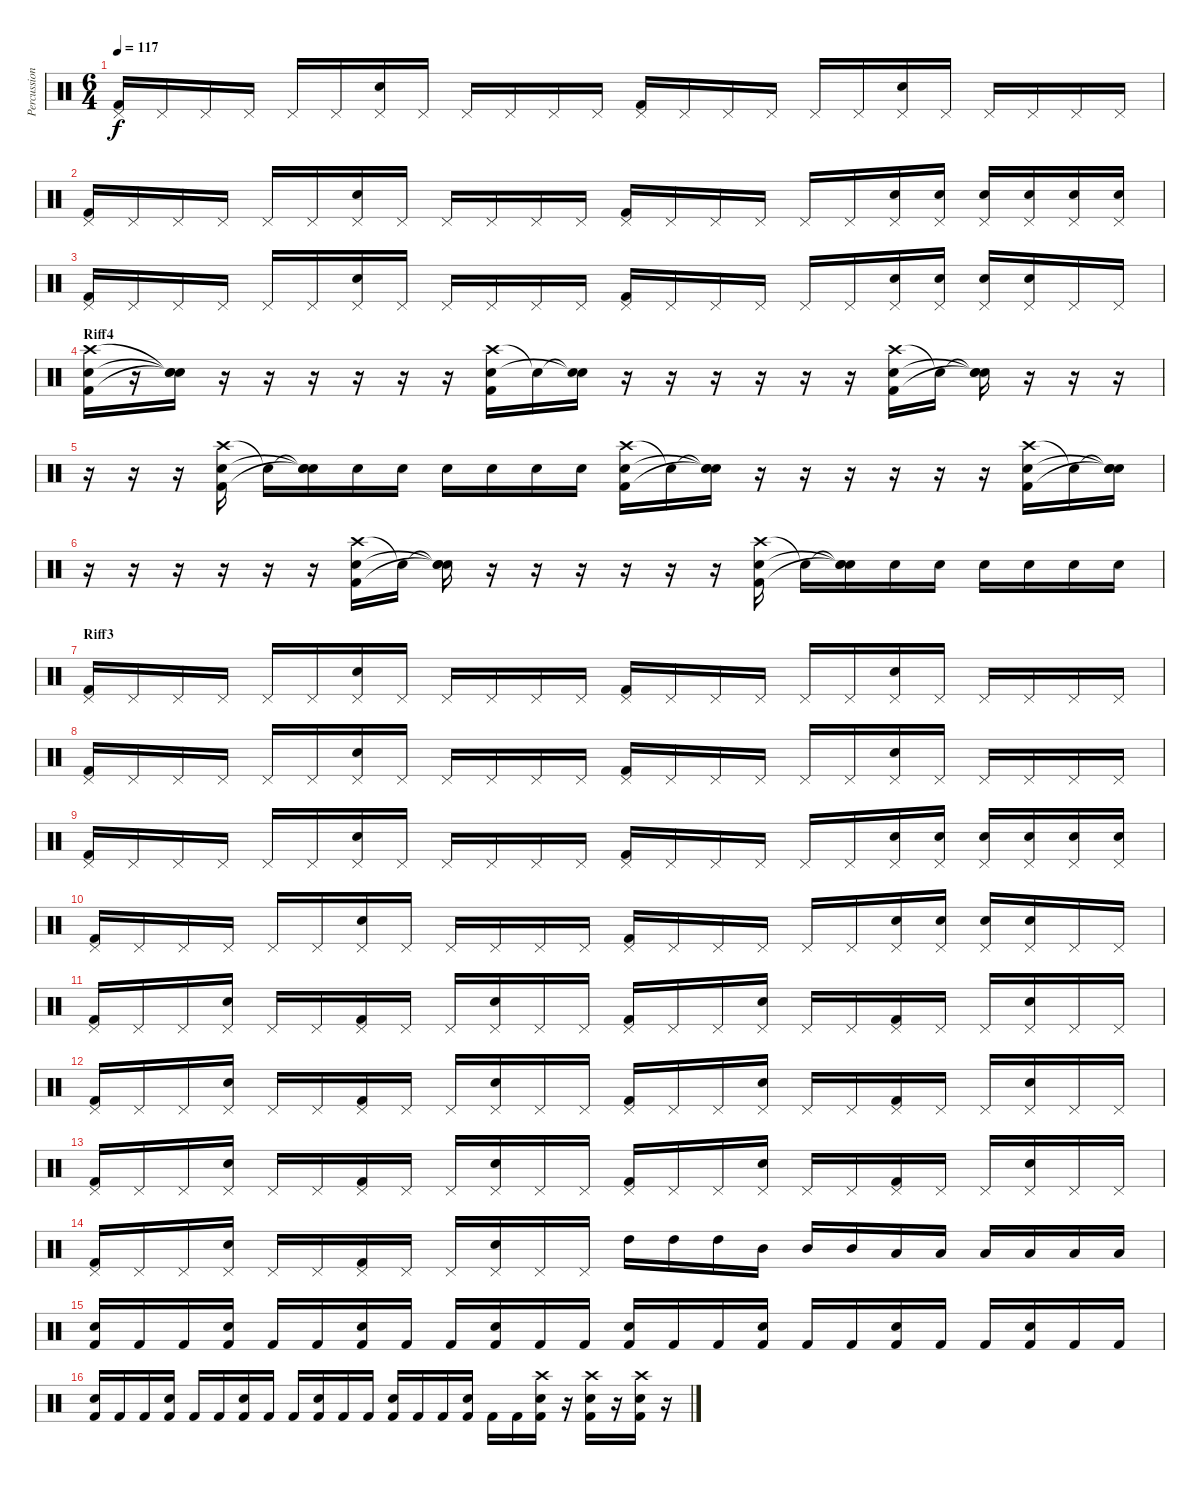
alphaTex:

\track ("Percussions" "Percussion") {instrument percussion}
\staff {score}
\articulation defaults
\ts (6 4)
\tempo 117
\clef neutral
\ks c
("Pedal Hi-Hat (hit)" "Kick (hit) 2").16{dy f} "Pedal Hi-Hat (hit)".16 "Pedal Hi-Hat (hit)".16 "Pedal Hi-Hat (hit)".16 "Pedal Hi-Hat (hit)".16 "Pedal Hi-Hat (hit)".16 ("Pedal Hi-Hat (hit)" "Electric Snare (hit)").16 "Pedal Hi-Hat (hit)".16 "Pedal Hi-Hat (hit)".16 "Pedal Hi-Hat (hit)".16 "Pedal Hi-Hat (hit)".16 "Pedal Hi-Hat (hit)".16 ("Pedal Hi-Hat (hit)" "Kick (hit) 2").16 "Pedal Hi-Hat (hit)".16 "Pedal Hi-Hat (hit)".16 "Pedal Hi-Hat (hit)".16 "Pedal Hi-Hat (hit)".16 "Pedal Hi-Hat (hit)".16 ("Pedal Hi-Hat (hit)" "Electric Snare (hit)").16 "Pedal Hi-Hat (hit)".16 "Pedal Hi-Hat (hit)".16 "Pedal Hi-Hat (hit)".16 "Pedal Hi-Hat (hit)".16 "Pedal Hi-Hat (hit)".16 |
("Pedal Hi-Hat (hit)" "Kick (hit) 2").16 "Pedal Hi-Hat (hit)".16 "Pedal Hi-Hat (hit)".16 "Pedal Hi-Hat (hit)".16 "Pedal Hi-Hat (hit)".16 "Pedal Hi-Hat (hit)".16 ("Pedal Hi-Hat (hit)" "Electric Snare (hit)").16 "Pedal Hi-Hat (hit)".16 "Pedal Hi-Hat (hit)".16 "Pedal Hi-Hat (hit)".16 "Pedal Hi-Hat (hit)".16 "Pedal Hi-Hat (hit)".16 ("Pedal Hi-Hat (hit)" "Kick (hit) 2").16 "Pedal Hi-Hat (hit)".16 "Pedal Hi-Hat (hit)".16 "Pedal Hi-Hat (hit)".16 "Pedal Hi-Hat (hit)".16 "Pedal Hi-Hat (hit)".16 ("Pedal Hi-Hat (hit)" "Electric Snare (hit)").16 ("Pedal Hi-Hat (hit)" "Electric Snare (hit)").16 ("Pedal Hi-Hat (hit)" "Electric Snare (hit)").16 ("Pedal Hi-Hat (hit)" "Electric Snare (hit)").16 ("Pedal Hi-Hat (hit)" "Electric Snare (hit)").16 ("Pedal Hi-Hat (hit)" "Electric Snare (hit)").16 |
("Pedal Hi-Hat (hit)" "Kick (hit) 2").16 "Pedal Hi-Hat (hit)".16 "Pedal Hi-Hat (hit)".16 "Pedal Hi-Hat (hit)".16 "Pedal Hi-Hat (hit)".16 "Pedal Hi-Hat (hit)".16 ("Pedal Hi-Hat (hit)" "Electric Snare (hit)").16 "Pedal Hi-Hat (hit)".16 "Pedal Hi-Hat (hit)".16 "Pedal Hi-Hat (hit)".16 "Pedal Hi-Hat (hit)".16 "Pedal Hi-Hat (hit)".16 ("Pedal Hi-Hat (hit)" "Kick (hit) 2").16 "Pedal Hi-Hat (hit)".16 "Pedal Hi-Hat (hit)".16 "Pedal Hi-Hat (hit)".16 "Pedal Hi-Hat (hit)".16 "Pedal Hi-Hat (hit)".16 ("Pedal Hi-Hat (hit)" "Electric Snare (hit)").16 ("Pedal Hi-Hat (hit)" "Electric Snare (hit)").16 ("Pedal Hi-Hat (hit)" "Electric Snare (hit)").16 ("Pedal Hi-Hat (hit)" "Electric Snare (hit)").16 "Pedal Hi-Hat (hit)".16 "Pedal Hi-Hat (hit)".16 |
\section ("" "Riff4")
("Crash high (hit)" "Electric Snare (hit)" "Kick (hit) 2").16 r.16 ("Snare (hit)"{t} "Snare (hit)"{t} "Snare (hit)"{t}).16 r.16 r.16 r.16 r.16 r.16 r.16 ("Crash high (hit)" "Electric Snare (hit)" "Kick (hit) 2").16 "Snare (hit)"{t}.16 ("Snare (hit)"{t} "Snare (hit)"{t}).16 r.16 r.16 r.16 r.16 r.16 r.16 ("Crash high (hit)" "Electric Snare (hit)" "Kick (hit) 2").16 "Snare (hit)"{t}.16 ("Snare (hit)"{t} "Snare (hit)"{t} "Snare (hit)"{t}).16 r.16 r.16 r.16 |
r.16 r.16 r.16 ("Crash high (hit)" "Electric Snare (hit)" "Kick (hit) 2").16 "Snare (hit)"{t}.16 ("Snare (hit)"{t} "Snare (hit)"{t} "Snare (hit)"{t}).16 "Electric Snare (hit)".16 "Electric Snare (hit)".16 "Electric Snare (hit)".16 "Electric Snare (hit)".16 "Electric Snare (hit)".16 "Electric Snare (hit)".16 ("Crash high (hit)" "Electric Snare (hit)" "Kick (hit) 2").16 "Snare (hit)"{t}.16 ("Snare (hit)"{t} "Snare (hit)"{t} "Snare (hit)"{t}).16 r.16 r.16 r.16 r.16 r.16 r.16 ("Crash high (hit)" "Electric Snare (hit)" "Kick (hit) 2").16 "Snare (hit)"{t}.16 ("Snare (hit)"{t} "Snare (hit)"{t} "Snare (hit)"{t}).16 |
r.16 r.16 r.16 r.16 r.16 r.16 ("Crash high (hit)" "Electric Snare (hit)" "Kick (hit) 2").16 "Snare (hit)"{t}.16 ("Snare (hit)"{t} "Snare (hit)"{t} "Snare (hit)"{t}).16 r.16 r.16 r.16 r.16 r.16 r.16 ("Crash high (hit)" "Electric Snare (hit)" "Kick (hit) 2").16 "Snare (hit)"{t}.16 ("Snare (hit)"{t} "Snare (hit)"{t} "Snare (hit)"{t}).16 "Electric Snare (hit)".16 "Electric Snare (hit)".16 "Electric Snare (hit)".16 "Electric Snare (hit)".16 "Electric Snare (hit)".16 "Electric Snare (hit)".16 |
\section ("" "Riff3")
("Pedal Hi-Hat (hit)" "Kick (hit) 2").16 "Pedal Hi-Hat (hit)".16 "Pedal Hi-Hat (hit)".16 "Pedal Hi-Hat (hit)".16 "Pedal Hi-Hat (hit)".16 "Pedal Hi-Hat (hit)".16 ("Pedal Hi-Hat (hit)" "Electric Snare (hit)").16 "Pedal Hi-Hat (hit)".16 "Pedal Hi-Hat (hit)".16 "Pedal Hi-Hat (hit)".16 "Pedal Hi-Hat (hit)".16 "Pedal Hi-Hat (hit)".16 ("Pedal Hi-Hat (hit)" "Kick (hit) 2").16 "Pedal Hi-Hat (hit)".16 "Pedal Hi-Hat (hit)".16 "Pedal Hi-Hat (hit)".16 "Pedal Hi-Hat (hit)".16 "Pedal Hi-Hat (hit)".16 ("Pedal Hi-Hat (hit)" "Electric Snare (hit)").16 "Pedal Hi-Hat (hit)".16 "Pedal Hi-Hat (hit)".16 "Pedal Hi-Hat (hit)".16 "Pedal Hi-Hat (hit)".16 "Pedal Hi-Hat (hit)".16 |
("Pedal Hi-Hat (hit)" "Kick (hit) 2").16 "Pedal Hi-Hat (hit)".16 "Pedal Hi-Hat (hit)".16 "Pedal Hi-Hat (hit)".16 "Pedal Hi-Hat (hit)".16 "Pedal Hi-Hat (hit)".16 ("Pedal Hi-Hat (hit)" "Electric Snare (hit)").16 "Pedal Hi-Hat (hit)".16 "Pedal Hi-Hat (hit)".16 "Pedal Hi-Hat (hit)".16 "Pedal Hi-Hat (hit)".16 "Pedal Hi-Hat (hit)".16 ("Pedal Hi-Hat (hit)" "Kick (hit) 2").16 "Pedal Hi-Hat (hit)".16 "Pedal Hi-Hat (hit)".16 "Pedal Hi-Hat (hit)".16 "Pedal Hi-Hat (hit)".16 "Pedal Hi-Hat (hit)".16 ("Pedal Hi-Hat (hit)" "Electric Snare (hit)").16 "Pedal Hi-Hat (hit)".16 "Pedal Hi-Hat (hit)".16 "Pedal Hi-Hat (hit)".16 "Pedal Hi-Hat (hit)".16 "Pedal Hi-Hat (hit)".16 |
("Pedal Hi-Hat (hit)" "Kick (hit) 2").16 "Pedal Hi-Hat (hit)".16 "Pedal Hi-Hat (hit)".16 "Pedal Hi-Hat (hit)".16 "Pedal Hi-Hat (hit)".16 "Pedal Hi-Hat (hit)".16 ("Pedal Hi-Hat (hit)" "Electric Snare (hit)").16 "Pedal Hi-Hat (hit)".16 "Pedal Hi-Hat (hit)".16 "Pedal Hi-Hat (hit)".16 "Pedal Hi-Hat (hit)".16 "Pedal Hi-Hat (hit)".16 ("Pedal Hi-Hat (hit)" "Kick (hit) 2").16 "Pedal Hi-Hat (hit)".16 "Pedal Hi-Hat (hit)".16 "Pedal Hi-Hat (hit)".16 "Pedal Hi-Hat (hit)".16 "Pedal Hi-Hat (hit)".16 ("Pedal Hi-Hat (hit)" "Electric Snare (hit)").16 ("Pedal Hi-Hat (hit)" "Electric Snare (hit)").16 ("Pedal Hi-Hat (hit)" "Electric Snare (hit)").16 ("Pedal Hi-Hat (hit)" "Electric Snare (hit)").16 ("Pedal Hi-Hat (hit)" "Electric Snare (hit)").16 ("Pedal Hi-Hat (hit)" "Electric Snare (hit)").16 |
("Pedal Hi-Hat (hit)" "Kick (hit) 2").16 "Pedal Hi-Hat (hit)".16 "Pedal Hi-Hat (hit)".16 "Pedal Hi-Hat (hit)".16 "Pedal Hi-Hat (hit)".16 "Pedal Hi-Hat (hit)".16 ("Pedal Hi-Hat (hit)" "Electric Snare (hit)").16 "Pedal Hi-Hat (hit)".16 "Pedal Hi-Hat (hit)".16 "Pedal Hi-Hat (hit)".16 "Pedal Hi-Hat (hit)".16 "Pedal Hi-Hat (hit)".16 ("Pedal Hi-Hat (hit)" "Kick (hit) 2").16 "Pedal Hi-Hat (hit)".16 "Pedal Hi-Hat (hit)".16 "Pedal Hi-Hat (hit)".16 "Pedal Hi-Hat (hit)".16 "Pedal Hi-Hat (hit)".16 ("Pedal Hi-Hat (hit)" "Electric Snare (hit)").16 ("Pedal Hi-Hat (hit)" "Electric Snare (hit)").16 ("Pedal Hi-Hat (hit)" "Electric Snare (hit)").16 ("Pedal Hi-Hat (hit)" "Electric Snare (hit)").16 "Pedal Hi-Hat (hit)".16 "Pedal Hi-Hat (hit)".16 |
("Pedal Hi-Hat (hit)" "Kick (hit) 2").16 "Pedal Hi-Hat (hit)".16 "Pedal Hi-Hat (hit)".16 ("Pedal Hi-Hat (hit)" "Electric Snare (hit)").16 "Pedal Hi-Hat (hit)".16 "Pedal Hi-Hat (hit)".16 ("Pedal Hi-Hat (hit)" "Kick (hit) 2").16 "Pedal Hi-Hat (hit)".16 "Pedal Hi-Hat (hit)".16 ("Pedal Hi-Hat (hit)" "Electric Snare (hit)").16 "Pedal Hi-Hat (hit)".16 "Pedal Hi-Hat (hit)".16 ("Pedal Hi-Hat (hit)" "Kick (hit) 2").16 "Pedal Hi-Hat (hit)".16 "Pedal Hi-Hat (hit)".16 ("Pedal Hi-Hat (hit)" "Electric Snare (hit)").16 "Pedal Hi-Hat (hit)".16 "Pedal Hi-Hat (hit)".16 ("Pedal Hi-Hat (hit)" "Kick (hit) 2").16 "Pedal Hi-Hat (hit)".16 "Pedal Hi-Hat (hit)".16 ("Pedal Hi-Hat (hit)" "Electric Snare (hit)").16 "Pedal Hi-Hat (hit)".16 "Pedal Hi-Hat (hit)".16 |
("Pedal Hi-Hat (hit)" "Kick (hit) 2").16 "Pedal Hi-Hat (hit)".16 "Pedal Hi-Hat (hit)".16 ("Pedal Hi-Hat (hit)" "Electric Snare (hit)").16 "Pedal Hi-Hat (hit)".16 "Pedal Hi-Hat (hit)".16 ("Pedal Hi-Hat (hit)" "Kick (hit) 2").16 "Pedal Hi-Hat (hit)".16 "Pedal Hi-Hat (hit)".16 ("Pedal Hi-Hat (hit)" "Electric Snare (hit)").16 "Pedal Hi-Hat (hit)".16 "Pedal Hi-Hat (hit)".16 ("Pedal Hi-Hat (hit)" "Kick (hit) 2").16 "Pedal Hi-Hat (hit)".16 "Pedal Hi-Hat (hit)".16 ("Pedal Hi-Hat (hit)" "Electric Snare (hit)").16 "Pedal Hi-Hat (hit)".16 "Pedal Hi-Hat (hit)".16 ("Pedal Hi-Hat (hit)" "Kick (hit) 2").16 "Pedal Hi-Hat (hit)".16 "Pedal Hi-Hat (hit)".16 ("Pedal Hi-Hat (hit)" "Electric Snare (hit)").16 "Pedal Hi-Hat (hit)".16 "Pedal Hi-Hat (hit)".16 |
("Pedal Hi-Hat (hit)" "Kick (hit) 2").16 "Pedal Hi-Hat (hit)".16 "Pedal Hi-Hat (hit)".16 ("Pedal Hi-Hat (hit)" "Electric Snare (hit)").16 "Pedal Hi-Hat (hit)".16 "Pedal Hi-Hat (hit)".16 ("Pedal Hi-Hat (hit)" "Kick (hit) 2").16 "Pedal Hi-Hat (hit)".16 "Pedal Hi-Hat (hit)".16 ("Pedal Hi-Hat (hit)" "Electric Snare (hit)").16 "Pedal Hi-Hat (hit)".16 "Pedal Hi-Hat (hit)".16 ("Pedal Hi-Hat (hit)" "Kick (hit) 2").16 "Pedal Hi-Hat (hit)".16 "Pedal Hi-Hat (hit)".16 ("Pedal Hi-Hat (hit)" "Electric Snare (hit)").16 "Pedal Hi-Hat (hit)".16 "Pedal Hi-Hat (hit)".16 ("Pedal Hi-Hat (hit)" "Kick (hit) 2").16 "Pedal Hi-Hat (hit)".16 "Pedal Hi-Hat (hit)".16 ("Pedal Hi-Hat (hit)" "Electric Snare (hit)").16 "Pedal Hi-Hat (hit)".16 "Pedal Hi-Hat (hit)".16 |
("Pedal Hi-Hat (hit)" "Kick (hit) 2").16 "Pedal Hi-Hat (hit)".16 "Pedal Hi-Hat (hit)".16 ("Pedal Hi-Hat (hit)" "Electric Snare (hit)").16 "Pedal Hi-Hat (hit)".16 "Pedal Hi-Hat (hit)".16 ("Pedal Hi-Hat (hit)" "Kick (hit) 2").16 "Pedal Hi-Hat (hit)".16 "Pedal Hi-Hat (hit)".16 ("Pedal Hi-Hat (hit)" "Electric Snare (hit)").16 "Pedal Hi-Hat (hit)".16 "Pedal Hi-Hat (hit)".16 "High Tom (hit)".16 "High Tom (hit)".16 "High Tom (hit)".16 "Mid Tom (hit)".16 "Mid Tom (hit)".16 "Mid Tom (hit)".16 "Low Tom (hit)".16 "Low Tom (hit)".16 "Low Tom (hit)".16 "Low Floor Tom (hit)".16 "Low Floor Tom (hit)".16 "Low Floor Tom (hit)".16 |
("Electric Snare (hit)" "Kick (hit) 2").16 "Kick (hit) 2".16 "Kick (hit) 2".16 ("Electric Snare (hit)" "Kick (hit) 2").16 "Kick (hit) 2".16 "Kick (hit) 2".16 ("Electric Snare (hit)" "Kick (hit) 2").16 "Kick (hit) 2".16 "Kick (hit) 2".16 ("Electric Snare (hit)" "Kick (hit) 2").16 "Kick (hit) 2".16 "Kick (hit) 2".16 ("Electric Snare (hit)" "Kick (hit) 2").16 "Kick (hit) 2".16 "Kick (hit) 2".16 ("Electric Snare (hit)" "Kick (hit) 2").16 "Kick (hit) 2".16 "Kick (hit) 2".16 ("Electric Snare (hit)" "Kick (hit) 2").16 "Kick (hit) 2".16 "Kick (hit) 2".16 ("Electric Snare (hit)" "Kick (hit) 2").16 "Kick (hit) 2".16 "Kick (hit) 2".16 |
("Electric Snare (hit)" "Kick (hit) 2").16 "Kick (hit) 2".16 "Kick (hit) 2".16 ("Electric Snare (hit)" "Kick (hit) 2").16 "Kick (hit) 2".16 "Kick (hit) 2".16 ("Electric Snare (hit)" "Kick (hit) 2").16 "Kick (hit) 2".16 "Kick (hit) 2".16 ("Electric Snare (hit)" "Kick (hit) 2").16 "Kick (hit) 2".16 "Kick (hit) 2".16 ("Electric Snare (hit)" "Kick (hit) 2").16 "Kick (hit) 2".16 "Kick (hit) 2".16 ("Electric Snare (hit)" "Kick (hit) 2").16 "Kick (hit) 2".16 "Kick (hit) 2".16 ("Crash high (hit)" "Electric Snare (hit)" "Kick (hit) 2").16 r.16 ("Crash high (hit)" "Electric Snare (hit)" "Kick (hit) 2").16 r.16 ("Crash high (hit)" "Electric Snare (hit)" "Kick (hit) 2").16 r.16
